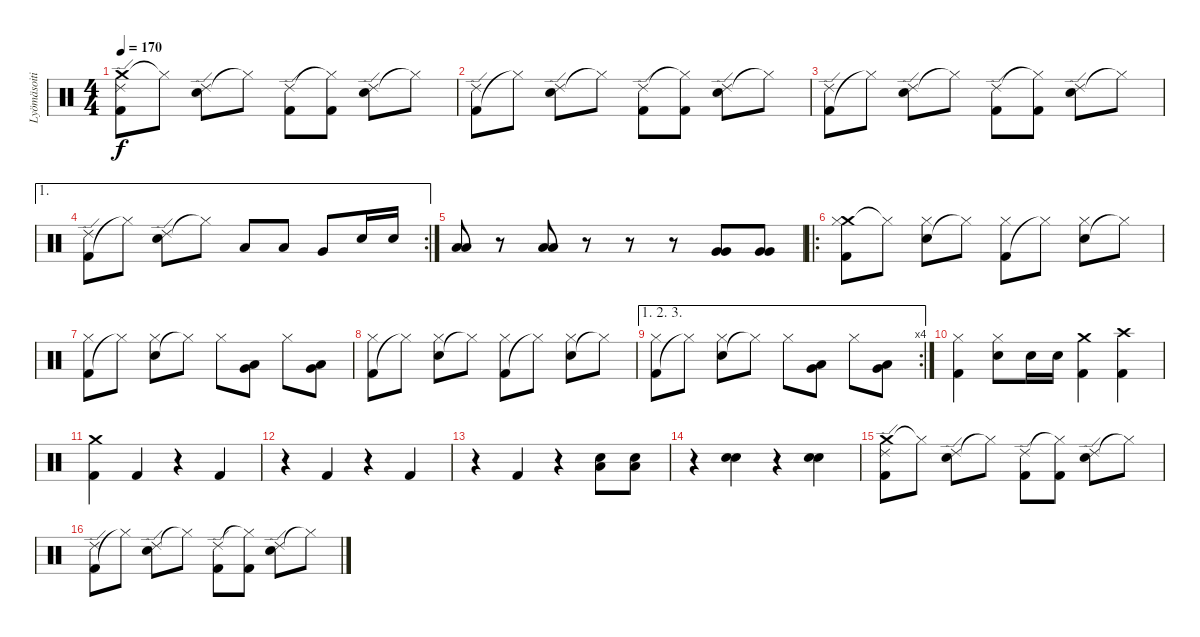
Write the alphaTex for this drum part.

\track ("Lyömäsoitin" "Lyömäsoiti") {instrument percussion}
\staff {score}
\articulation defaults
\ts (4 4)
\tempo 170
\clef neutral
\ks c
("Crash medium (hit)" "Kick (hit) 2" "Ride (edge) 2").8{dy f} "Hi-Hat (closed)"{t}.8 ("Electric Snare (hit)" "Ride (edge) 2").8 "Hi-Hat (closed)"{t}.8 ("Kick (hit) 2" "Ride (edge) 2").8 ("Kick (hit) 2" "Hi-Hat (closed)"{t}).8 ("Electric Snare (hit)" "Ride (edge) 2").8 "Hi-Hat (closed)"{t}.8 |
("Kick (hit) 2" "Ride (edge) 2").8 "Hi-Hat (closed)"{t}.8 ("Electric Snare (hit)" "Ride (edge) 2").8 "Hi-Hat (closed)"{t}.8 ("Kick (hit) 2" "Ride (edge) 2").8 ("Kick (hit) 2" "Hi-Hat (closed)"{t}).8 ("Electric Snare (hit)" "Ride (edge) 2").8 "Hi-Hat (closed)"{t}.8 |
("Kick (hit) 2" "Ride (edge) 2").8 "Hi-Hat (closed)"{t}.8 ("Electric Snare (hit)" "Ride (edge) 2").8 "Hi-Hat (closed)"{t}.8 ("Kick (hit) 2" "Ride (edge) 2").8 ("Kick (hit) 2" "Hi-Hat (closed)"{t}).8 ("Electric Snare (hit)" "Ride (edge) 2").8 "Hi-Hat (closed)"{t}.8 |
\ae 1
\rc 2
("Kick (hit) 2" "Ride (edge) 2").8 "Hi-Hat (closed)"{t}.8 ("Electric Snare (hit)" "Ride (edge) 2").8 "Hi-Hat (closed)"{t}.8 "Low Tom (hit)".8 "Low Tom (hit)".8 "Very Low Tom (hit)".8 "Electric Snare (hit)".16 "Electric Snare (hit)".16 |
("Low Tom (hit)" "Low Tom (hit)").8 r.8 ("Low Tom (hit)" "Low Tom (hit)").8 r.8 r.8 r.8 ("Very Low Tom (hit)" "Very Low Tom (hit)").8 ("Very Low Tom (hit)" "Very Low Tom (hit)").8 |
\ro
("Crash medium (hit)" "Kick (hit) 2" "Hi-Hat (closed)").8 "Hi-Hat (closed)"{t}.8 ("Electric Snare (hit)" "Hi-Hat (closed)").8 "Hi-Hat (closed)"{t}.8 ("Kick (hit) 2" "Hi-Hat (closed)").8 "Hi-Hat (closed)"{t}.8 ("Electric Snare (hit)" "Hi-Hat (closed)").8 "Hi-Hat (closed)"{t}.8 |
("Kick (hit) 2" "Hi-Hat (closed)").8 "Hi-Hat (closed)"{t}.8 ("Electric Snare (hit)" "Hi-Hat (closed)").8 "Hi-Hat (closed)"{t}.8 "Hi-Hat (closed)".8 ("Low Tom (hit)" "Very Low Tom (hit)").8 "Hi-Hat (closed)".8 ("Low Tom (hit)" "Very Low Tom (hit)").8 |
("Kick (hit) 2" "Hi-Hat (closed)").8 "Hi-Hat (closed)"{t}.8 ("Electric Snare (hit)" "Hi-Hat (closed)").8 "Hi-Hat (closed)"{t}.8 ("Kick (hit) 2" "Hi-Hat (closed)").8 "Hi-Hat (closed)"{t}.8 ("Electric Snare (hit)" "Hi-Hat (closed)").8 "Hi-Hat (closed)"{t}.8 |
\ae (1 2 3)
\rc 4
("Kick (hit) 2" "Hi-Hat (closed)").8 "Hi-Hat (closed)"{t}.8 ("Electric Snare (hit)" "Hi-Hat (closed)").8 "Hi-Hat (closed)"{t}.8 "Hi-Hat (closed)".8 ("Low Tom (hit)" "Very Low Tom (hit)").8 "Hi-Hat (closed)".8 ("Low Tom (hit)" "Very Low Tom (hit)").8 |
("Kick (hit) 2" "Hi-Hat (closed)").4 ("Electric Snare (hit)" "Hi-Hat (closed)").8 "Electric Snare (hit)".16 "Electric Snare (hit)".16 ("Crash medium (hit)" "Kick (hit) 2").4 ("Crash high (hit)" "Kick (hit) 2").4 |
("Kick (hit) 2" "Crash medium (hit)").4 "Kick (hit) 2".4 r.4 "Kick (hit) 2".4 |
r.4 "Kick (hit) 2".4 r.4 "Kick (hit) 2".4 |
r.4 "Kick (hit) 2".4 r.4 ("Low Tom (hit)" "Electric Snare (hit)").8 ("Low Tom (hit)" "Electric Snare (hit)").8 |
r.4 ("Electric Snare (hit)" "Electric Snare (hit)").4 r.4 ("Electric Snare (hit)" "Electric Snare (hit)").4 |
("Crash medium (hit)" "Kick (hit) 2" "Ride (edge) 2").8 "Hi-Hat (closed)"{t}.8 ("Electric Snare (hit)" "Ride (edge) 2").8 "Hi-Hat (closed)"{t}.8 ("Kick (hit) 2" "Ride (edge) 2").8 ("Kick (hit) 2" "Hi-Hat (closed)"{t}).8 ("Electric Snare (hit)" "Ride (edge) 2").8 "Hi-Hat (closed)"{t}.8 |
("Kick (hit) 2" "Ride (edge) 2").8 "Hi-Hat (closed)"{t}.8 ("Electric Snare (hit)" "Ride (edge) 2").8 "Hi-Hat (closed)"{t}.8 ("Kick (hit) 2" "Ride (edge) 2").8 ("Kick (hit) 2" "Hi-Hat (closed)"{t}).8 ("Electric Snare (hit)" "Ride (edge) 2").8 "Hi-Hat (closed)"{t}.8
